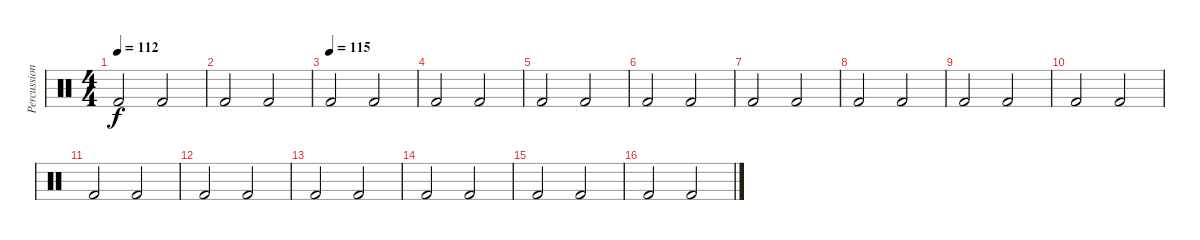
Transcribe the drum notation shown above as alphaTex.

\track ("Percussion" "Percussion") {mute instrument percussion}
\staff {score}
\articulation defaults
\ts (4 4)
\tempo 112
\clef neutral
\ks c "Kick (hit) 2".2{dy f} "Kick (hit) 2".2
|
"Kick (hit) 2".2 "Kick (hit) 2".2 |
\tempo (115)
"Kick (hit) 2".2 "Kick (hit) 2".2 |
"Kick (hit) 2".2 "Kick (hit) 2".2 |
"Kick (hit) 2".2 "Kick (hit) 2".2 |
"Kick (hit) 2".2 "Kick (hit) 2".2 |
"Kick (hit) 2".2 "Kick (hit) 2".2 |
"Kick (hit) 2".2 "Kick (hit) 2".2 |
"Kick (hit) 2".2 "Kick (hit) 2".2 |
"Kick (hit) 2".2 "Kick (hit) 2".2 |
"Kick (hit) 2".2 "Kick (hit) 2".2 |
"Kick (hit) 2".2 "Kick (hit) 2".2 |
"Kick (hit) 2".2 "Kick (hit) 2".2 |
"Kick (hit) 2".2 "Kick (hit) 2".2 |
"Kick (hit) 2".2 "Kick (hit) 2".2 |
"Kick (hit) 2".2 "Kick (hit) 2".2
